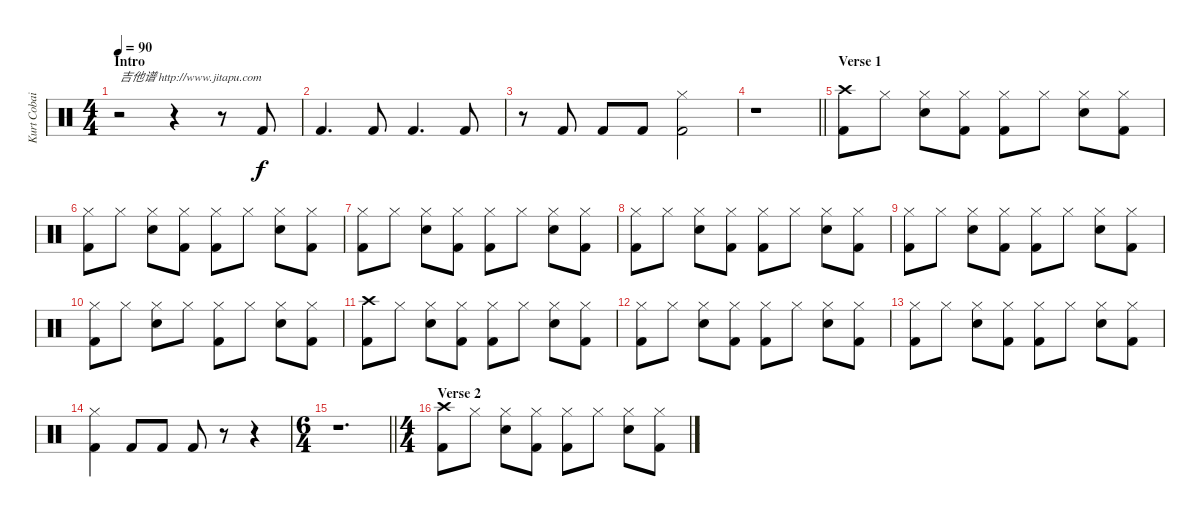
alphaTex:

\track ("Kurt Cobain" "Kurt Cobai") {instrument percussion}
\staff {score}
\articulation defaults
\ts (4 4)
\section ("" "Intro")
\tempo 90
\clef neutral
\ks c
r.2{txt "吉他谱 http://www.jitapu.com" dy f} r.4 r.8 "Kick (hit) 2".8 |
"Kick (hit) 2".4{d} "Kick (hit) 2".8 "Kick (hit) 2".4{d} "Kick (hit) 2".8 |
r.8 "Kick (hit) 2".8 "Kick (hit) 2".8 "Kick (hit) 2".8 ("Hi-Hat (closed)" "Kick (hit) 2").2 |
\barLineRight lightlight
r.1 |
\section ("" "Verse 1")
("Crash high (hit)" "Kick (hit) 2").8 "Hi-Hat (closed)".8 ("Hi-Hat (closed)" "Snare (hit) 2").8 ("Hi-Hat (closed)" "Kick (hit) 2").8 ("Hi-Hat (closed)" "Kick (hit) 2").8 "Hi-Hat (closed)".8 ("Hi-Hat (closed)" "Snare (hit) 2").8 ("Hi-Hat (closed)" "Kick (hit) 2").8 |
("Hi-Hat (closed)" "Kick (hit) 2").8 "Hi-Hat (closed)".8 ("Hi-Hat (closed)" "Snare (hit) 2").8 ("Hi-Hat (closed)" "Kick (hit) 2").8 ("Hi-Hat (closed)" "Kick (hit) 2").8 "Hi-Hat (closed)".8 ("Hi-Hat (closed)" "Snare (hit) 2").8 ("Hi-Hat (closed)" "Kick (hit) 2").8 |
("Hi-Hat (closed)" "Kick (hit) 2").8 "Hi-Hat (closed)".8 ("Hi-Hat (closed)" "Snare (hit) 2").8 ("Hi-Hat (closed)" "Kick (hit) 2").8 ("Hi-Hat (closed)" "Kick (hit) 2").8 "Hi-Hat (closed)".8 ("Hi-Hat (closed)" "Snare (hit) 2").8 ("Hi-Hat (closed)" "Kick (hit) 2").8 |
("Hi-Hat (closed)" "Kick (hit) 2").8 "Hi-Hat (closed)".8 ("Hi-Hat (closed)" "Snare (hit) 2").8 ("Hi-Hat (closed)" "Kick (hit) 2").8 ("Hi-Hat (closed)" "Kick (hit) 2").8 "Hi-Hat (closed)".8 ("Hi-Hat (closed)" "Snare (hit) 2").8 ("Hi-Hat (closed)" "Kick (hit) 2").8 |
("Hi-Hat (closed)" "Kick (hit) 2").8 "Hi-Hat (closed)".8 ("Hi-Hat (closed)" "Snare (hit) 2").8 ("Hi-Hat (closed)" "Kick (hit) 2").8 ("Hi-Hat (closed)" "Kick (hit) 2").8 "Hi-Hat (closed)".8 ("Hi-Hat (closed)" "Snare (hit) 2").8 ("Hi-Hat (closed)" "Kick (hit) 2").8 |
("Hi-Hat (closed)" "Kick (hit) 2").8 "Hi-Hat (closed)".8 ("Hi-Hat (closed)" "Snare (hit) 2").8 "Hi-Hat (closed)".8 ("Hi-Hat (closed)" "Kick (hit) 2").8 "Hi-Hat (closed)".8 ("Hi-Hat (closed)" "Snare (hit) 2").8 ("Hi-Hat (closed)" "Kick (hit) 2").8 |
("Crash high (hit)" "Kick (hit) 2").8 "Hi-Hat (closed)".8 ("Hi-Hat (closed)" "Snare (hit) 2").8 ("Hi-Hat (closed)" "Kick (hit) 2").8 ("Hi-Hat (closed)" "Kick (hit) 2").8 "Hi-Hat (closed)".8 ("Hi-Hat (closed)" "Snare (hit) 2").8 ("Hi-Hat (closed)" "Kick (hit) 2").8 |
("Hi-Hat (closed)" "Kick (hit) 2").8 "Hi-Hat (closed)".8 ("Hi-Hat (closed)" "Snare (hit) 2").8 ("Hi-Hat (closed)" "Kick (hit) 2").8 ("Hi-Hat (closed)" "Kick (hit) 2").8 "Hi-Hat (closed)".8 ("Hi-Hat (closed)" "Snare (hit) 2").8 ("Hi-Hat (closed)" "Kick (hit) 2").8 |
("Hi-Hat (closed)" "Kick (hit) 2").8 "Hi-Hat (closed)".8 ("Hi-Hat (closed)" "Snare (hit) 2").8 ("Hi-Hat (closed)" "Kick (hit) 2").8 ("Hi-Hat (closed)" "Kick (hit) 2").8 "Hi-Hat (closed)".8 ("Hi-Hat (closed)" "Snare (hit) 2").8 ("Hi-Hat (closed)" "Kick (hit) 2").8 |
("Hi-Hat (closed)" "Kick (hit) 2").4 "Kick (hit) 2".8 "Kick (hit) 2".8 "Kick (hit) 2".8 r.8 r.4 |
\ts (6 4)
\barLineRight lightlight
r.1{d} |
\ts (4 4)
\section ("" "Verse 2")
("Crash high (hit)" "Kick (hit) 2").8 "Hi-Hat (closed)".8 ("Hi-Hat (closed)" "Snare (hit) 2").8 ("Hi-Hat (closed)" "Kick (hit) 2").8 ("Hi-Hat (closed)" "Kick (hit) 2").8 "Hi-Hat (closed)".8 ("Hi-Hat (closed)" "Snare (hit) 2").8 ("Hi-Hat (closed)" "Kick (hit) 2").8
